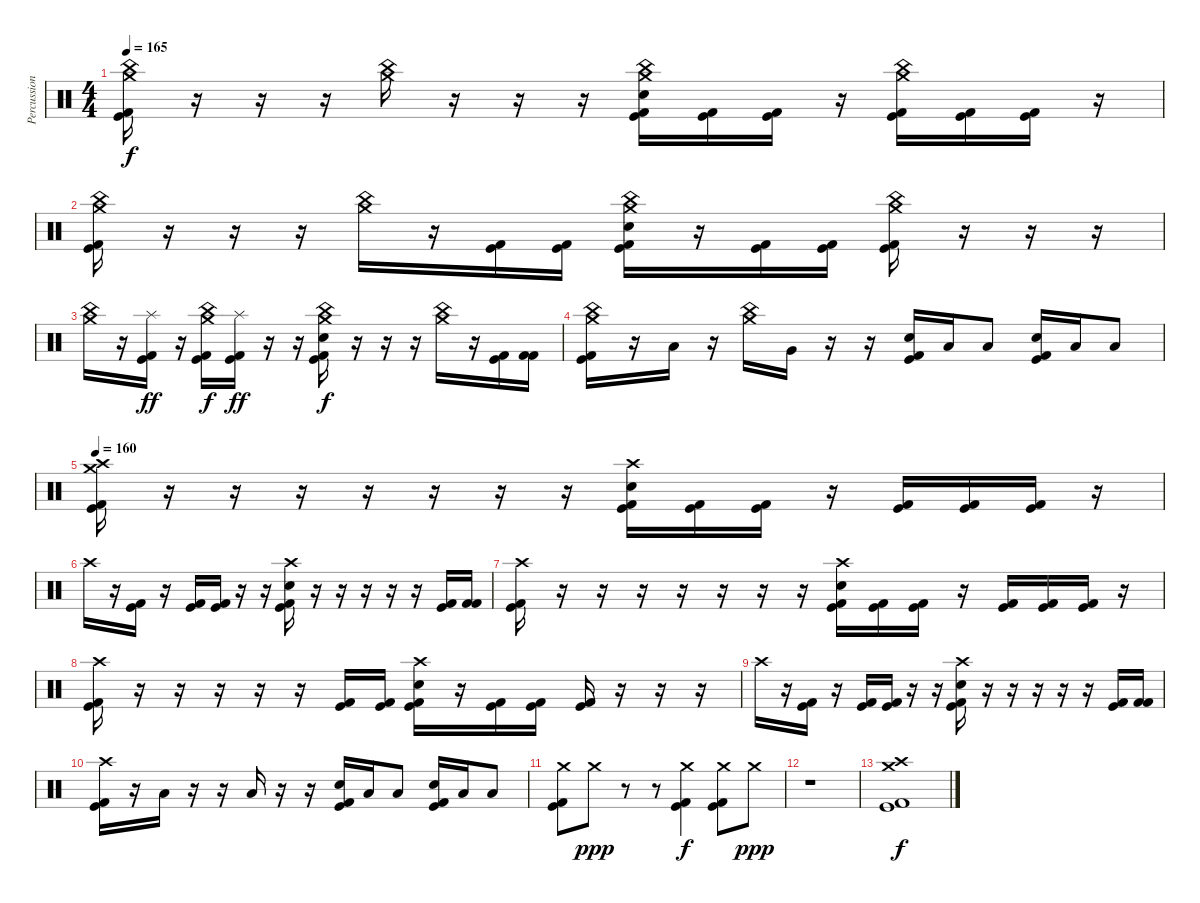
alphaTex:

\track ("Percussion" "Percussion") {instrument percussion}
\staff {score}
\articulation defaults
\ts (4 4)
\tempo 165
\clef neutral
\ks c
("Crash medium (hit)" "China (hit)" "Kick (hit)" "Kick (hit) 2").16{dy f} r.16 r.16 r.16 ("Crash medium (hit)" "China (hit)").16 r.16 r.16 r.16 ("Crash medium (hit)" "China (hit)" "Electric Snare (hit)" "Kick (hit)" "Kick (hit) 2").16 ("Kick (hit)" "Kick (hit) 2").16 ("Kick (hit)" "Kick (hit) 2").16 r.16 ("Crash medium (hit)" "China (hit)" "Kick (hit)" "Kick (hit) 2").16 ("Kick (hit)" "Kick (hit) 2").16 ("Kick (hit)" "Kick (hit) 2").16 r.16 |
("Crash medium (hit)" "China (hit)" "Kick (hit)" "Kick (hit) 2").16 r.16 r.16 r.16 ("Crash medium (hit)" "China (hit)").16 r.16 ("Kick (hit)" "Kick (hit) 2").16 ("Kick (hit)" "Kick (hit) 2").16 ("Crash medium (hit)" "China (hit)" "Electric Snare (hit)" "Kick (hit)" "Kick (hit) 2").16 r.16 ("Kick (hit)" "Kick (hit) 2").16 ("Kick (hit)" "Kick (hit) 2").16 ("Crash medium (hit)" "China (hit)" "Kick (hit)" "Kick (hit) 2").16 r.16 r.16 r.16 |
("Crash medium (hit)" "China (hit)").16 r.16 ("Splash (hit)" "Kick (hit)" "Kick (hit) 2").16{dy ff} r.16 ("Crash medium (hit)" "China (hit)" "Kick (hit)" "Kick (hit) 2").16{dy f} ("Splash (hit)" "Kick (hit)" "Kick (hit) 2").16{dy ff} r.16 r.16 ("Crash medium (hit)" "China (hit)" "Electric Snare (hit)" "Kick (hit)" "Kick (hit) 2").16{dy f} r.16 r.16 r.16 ("Crash medium (hit)" "China (hit)").16 r.16 ("Kick (hit)" "Kick (hit) 2").16 ("Kick (hit) 2" "Kick (hit) 2").16 |
("Crash medium (hit)" "China (hit)" "Kick (hit)" "Kick (hit) 2").16 r.16 "Low Tom (hit)".16 r.16 ("Crash medium (hit)" "China (hit)").16 "Very Low Tom (hit)".16 r.16 r.16 ("Electric Snare (hit)" "Kick (hit)" "Kick (hit) 2").16 "Low Tom (hit)".16 "Low Floor Tom (hit)".8 ("Electric Snare (hit)" "Kick (hit)" "Kick (hit) 2").16 "Low Tom (hit)".16 "Low Floor Tom (hit)".8 |
\tempo 160
("Crash medium (hit)" "Crash high (hit)" "Kick (hit)" "Kick (hit) 2").16 r.16 r.16 r.16 r.16 r.16 r.16 r.16 ("Crash high (hit)" "Electric Snare (hit)" "Kick (hit)" "Kick (hit) 2").16 ("Kick (hit)" "Kick (hit) 2").16 ("Kick (hit)" "Kick (hit) 2").16 r.16 ("Kick (hit)" "Kick (hit) 2").16 ("Kick (hit)" "Kick (hit) 2").16 ("Kick (hit)" "Kick (hit) 2").16 r.16 |
"Crash high (hit)".16 r.16 ("Kick (hit)" "Kick (hit) 2").16 r.16 ("Kick (hit)" "Kick (hit) 2").16 ("Kick (hit)" "Kick (hit) 2").16 r.16 r.16 ("Crash high (hit)" "Electric Snare (hit)" "Kick (hit)" "Kick (hit) 2").16 r.16 r.16 r.16 r.16 r.16 ("Kick (hit)" "Kick (hit) 2").16 ("Kick (hit) 2" "Kick (hit) 2").16 |
("Crash high (hit)" "Kick (hit)" "Kick (hit) 2").16 r.16 r.16 r.16 r.16 r.16 r.16 r.16 ("Crash high (hit)" "Electric Snare (hit)" "Kick (hit)" "Kick (hit) 2").16 ("Kick (hit)" "Kick (hit) 2").16 ("Kick (hit)" "Kick (hit) 2").16 r.16 ("Kick (hit)" "Kick (hit) 2").16 ("Kick (hit)" "Kick (hit) 2").16 ("Kick (hit)" "Kick (hit) 2").16 r.16 |
("Crash high (hit)" "Kick (hit)" "Kick (hit) 2").16 r.16 r.16 r.16 r.16 r.16 ("Kick (hit)" "Kick (hit) 2").16 ("Kick (hit)" "Kick (hit) 2").16 ("Crash high (hit)" "Electric Snare (hit)" "Kick (hit)" "Kick (hit) 2").16 r.16 ("Kick (hit)" "Kick (hit) 2").16 ("Kick (hit)" "Kick (hit) 2").16 ("Kick (hit)" "Kick (hit) 2").16 r.16 r.16 r.16 |
"Crash high (hit)".16 r.16 ("Kick (hit)" "Kick (hit) 2").16 r.16 ("Kick (hit)" "Kick (hit) 2").16 ("Kick (hit)" "Kick (hit) 2").16 r.16 r.16 ("Crash high (hit)" "Electric Snare (hit)" "Kick (hit)" "Kick (hit) 2").16 r.16 r.16 r.16 r.16 r.16 ("Kick (hit)" "Kick (hit) 2").16 ("Kick (hit) 2" "Kick (hit) 2").16 |
("Crash high (hit)" "Kick (hit)" "Kick (hit) 2").16 r.16 "Low Tom (hit)".16 r.16 r.16 "Low Tom (hit)".16 r.16 r.16 ("Electric Snare (hit)" "Kick (hit)" "Kick (hit) 2").16 "Low Tom (hit)".16 "Low Floor Tom (hit)".8 ("Electric Snare (hit)" "Kick (hit)" "Kick (hit) 2").16 "Low Tom (hit)".16 "Low Floor Tom (hit)".8 |
("Crash medium (hit)" "Kick (hit)" "Kick (hit) 2").8 "Crash medium (hit)".8{dy ppp volume 0} r.8 r.8 ("Crash medium (hit)" "Kick (hit)" "Kick (hit) 2").4{dy f volume 16} ("Crash medium (hit)" "Kick (hit)" "Kick (hit) 2").8 "Crash medium (hit)".8{dy ppp volume 0} |
r.1 |
("Crash medium (hit)" "Crash high (hit)" "Kick (hit)" "Kick (hit) 2").1{dy f volume 16}
